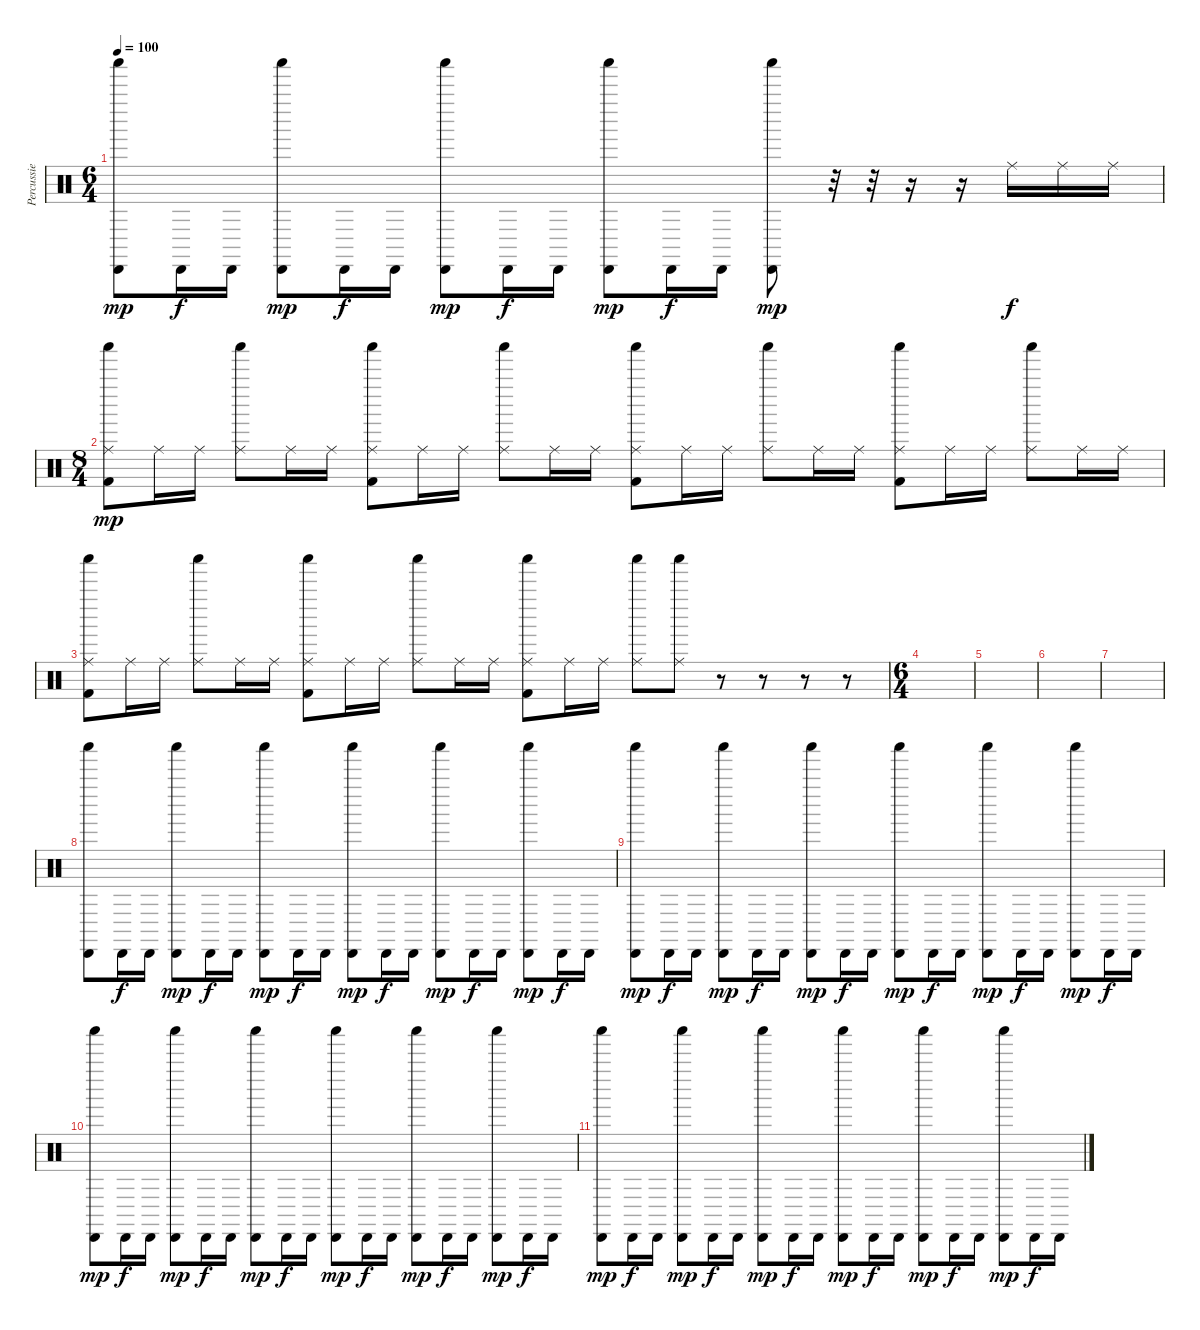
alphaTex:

\track ("Percussie" "Percussie") {instrument percussion}
\staff {score}
\articulation defaults
\ts (6 4)
\tempo 100
\clef neutral
\ks c
("Cabasa (hit)" "Shaker (hit)").8{dy mp} "Cabasa (hit)".16{dy f} "Cabasa (hit)".16 ("Cabasa (hit)" "Shaker (hit)").8{dy mp} "Cabasa (hit)".16{dy f} "Cabasa (hit)".16 ("Cabasa (hit)" "Shaker (hit)").8{dy mp} "Cabasa (hit)".16{dy f} "Cabasa (hit)".16 ("Cabasa (hit)" "Shaker (hit)").8{dy mp} "Cabasa (hit)".16{dy f} "Cabasa (hit)".16 ("Cabasa (hit)" "Shaker (hit)").8{dy mp} r.32 r.32 r.16 r.16 "Ride (middle)".16{dy f} "Ride (middle)".16 "Ride (middle)".16 |
\ts (8 4)
("Ride (middle)" "Shaker (hit)" "Kick (hit) 2").8{dy mp} "Ride (middle)".16 "Ride (middle)".16 ("Ride (middle)" "Shaker (hit)").8 "Ride (middle)".16 "Ride (middle)".16 ("Ride (middle)" "Shaker (hit)" "Kick (hit) 2").8 "Ride (middle)".16 "Ride (middle)".16 ("Ride (middle)" "Shaker (hit)").8 "Ride (middle)".16 "Ride (middle)".16 ("Ride (middle)" "Shaker (hit)" "Kick (hit) 2").8 "Ride (middle)".16 "Ride (middle)".16 ("Ride (middle)" "Shaker (hit)").8 "Ride (middle)".16 "Ride (middle)".16 ("Ride (middle)" "Shaker (hit)" "Kick (hit) 2").8 "Ride (middle)".16 "Ride (middle)".16 ("Ride (middle)" "Shaker (hit)").8 "Ride (middle)".16 "Ride (middle)".16 |
("Ride (middle)" "Shaker (hit)" "Kick (hit) 2").8 "Ride (middle)".16 "Ride (middle)".16 ("Ride (middle)" "Shaker (hit)").8 "Ride (middle)".16 "Ride (middle)".16 ("Ride (middle)" "Shaker (hit)" "Kick (hit) 2").8 "Ride (middle)".16 "Ride (middle)".16 ("Ride (middle)" "Shaker (hit)").8 "Ride (middle)".16 "Ride (middle)".16 ("Ride (middle)" "Shaker (hit)" "Kick (hit) 2").8 "Ride (middle)".16 "Ride (middle)".16 ("Ride (middle)" "Shaker (hit)").8 ("Ride (middle)" "Shaker (hit)").8 r.8 r.8 r.8 r.8 |
\ts (6 4)
|
|
|
|
("Cabasa (hit)" "Shaker (hit)").8 "Cabasa (hit)".16{dy f} "Cabasa (hit)".16 ("Cabasa (hit)" "Shaker (hit)").8{dy mp} "Cabasa (hit)".16{dy f} "Cabasa (hit)".16 ("Cabasa (hit)" "Shaker (hit)").8{dy mp} "Cabasa (hit)".16{dy f} "Cabasa (hit)".16 ("Cabasa (hit)" "Shaker (hit)").8{dy mp} "Cabasa (hit)".16{dy f} "Cabasa (hit)".16 ("Cabasa (hit)" "Shaker (hit)").8{dy mp} "Cabasa (hit)".16{dy f} "Cabasa (hit)".16 ("Cabasa (hit)" "Shaker (hit)").8{dy mp} "Cabasa (hit)".16{dy f} "Cabasa (hit)".16 |
("Cabasa (hit)" "Shaker (hit)").8{dy mp} "Cabasa (hit)".16{dy f} "Cabasa (hit)".16 ("Cabasa (hit)" "Shaker (hit)").8{dy mp} "Cabasa (hit)".16{dy f} "Cabasa (hit)".16 ("Cabasa (hit)" "Shaker (hit)").8{dy mp} "Cabasa (hit)".16{dy f} "Cabasa (hit)".16 ("Cabasa (hit)" "Shaker (hit)").8{dy mp} "Cabasa (hit)".16{dy f} "Cabasa (hit)".16 ("Cabasa (hit)" "Shaker (hit)").8{dy mp} "Cabasa (hit)".16{dy f} "Cabasa (hit)".16 ("Cabasa (hit)" "Shaker (hit)").8{dy mp} "Cabasa (hit)".16{dy f} "Cabasa (hit)".16 |
("Cabasa (hit)" "Shaker (hit)").8{dy mp} "Cabasa (hit)".16{dy f} "Cabasa (hit)".16 ("Cabasa (hit)" "Shaker (hit)").8{dy mp} "Cabasa (hit)".16{dy f} "Cabasa (hit)".16 ("Cabasa (hit)" "Shaker (hit)").8{dy mp} "Cabasa (hit)".16{dy f} "Cabasa (hit)".16 ("Cabasa (hit)" "Shaker (hit)").8{dy mp} "Cabasa (hit)".16{dy f} "Cabasa (hit)".16 ("Cabasa (hit)" "Shaker (hit)").8{dy mp} "Cabasa (hit)".16{dy f} "Cabasa (hit)".16 ("Cabasa (hit)" "Shaker (hit)").8{dy mp} "Cabasa (hit)".16{dy f} "Cabasa (hit)".16 |
("Cabasa (hit)" "Shaker (hit)").8{dy mp} "Cabasa (hit)".16{dy f} "Cabasa (hit)".16 ("Cabasa (hit)" "Shaker (hit)").8{dy mp} "Cabasa (hit)".16{dy f} "Cabasa (hit)".16 ("Cabasa (hit)" "Shaker (hit)").8{dy mp} "Cabasa (hit)".16{dy f} "Cabasa (hit)".16 ("Cabasa (hit)" "Shaker (hit)").8{dy mp} "Cabasa (hit)".16{dy f} "Cabasa (hit)".16 ("Cabasa (hit)" "Shaker (hit)").8{dy mp} "Cabasa (hit)".16{dy f} "Cabasa (hit)".16 ("Cabasa (hit)" "Shaker (hit)").8{dy mp} "Cabasa (hit)".16{dy f} "Cabasa (hit)".16
